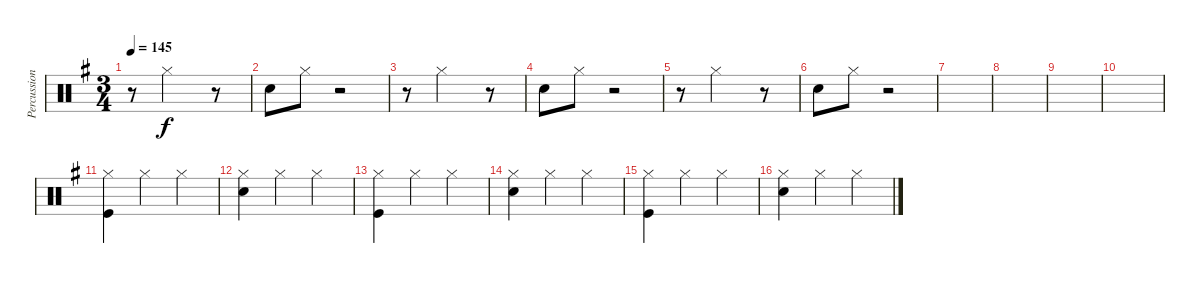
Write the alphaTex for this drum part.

\track ("Percussioni" "Percussion") {instrument percussion}
\staff {score}
\articulation defaults
\ts (3 4)
\tempo 145
\clef neutral
\ks g
r.8{dy f} "Hi-Hat (closed)".2 r.8 |
"Snare (hit) 2".8 "Hi-Hat (closed)".8 r.2 |
r.8 "Hi-Hat (closed)".2 r.8 |
"Snare (hit) 2".8 "Hi-Hat (closed)".8 r.2 |
r.8 "Hi-Hat (closed)".2 r.8 |
"Snare (hit) 2".8 "Hi-Hat (closed)".8 r.2 |
|
|
|
|
("Hi-Hat (closed)" "Kick (hit)").4 "Hi-Hat (closed)".4 "Hi-Hat (closed)".4 |
("Hi-Hat (closed)" "Snare (hit) 2").4 "Hi-Hat (closed)".4 "Hi-Hat (closed)".4 |
("Hi-Hat (closed)" "Kick (hit)").4 "Hi-Hat (closed)".4 "Hi-Hat (closed)".4 |
("Hi-Hat (closed)" "Snare (hit) 2").4 "Hi-Hat (closed)".4 "Hi-Hat (closed)".4 |
("Hi-Hat (closed)" "Kick (hit)").4 "Hi-Hat (closed)".4 "Hi-Hat (closed)".4 |
("Hi-Hat (closed)" "Snare (hit) 2").4 "Hi-Hat (closed)".4 "Hi-Hat (closed)".4
